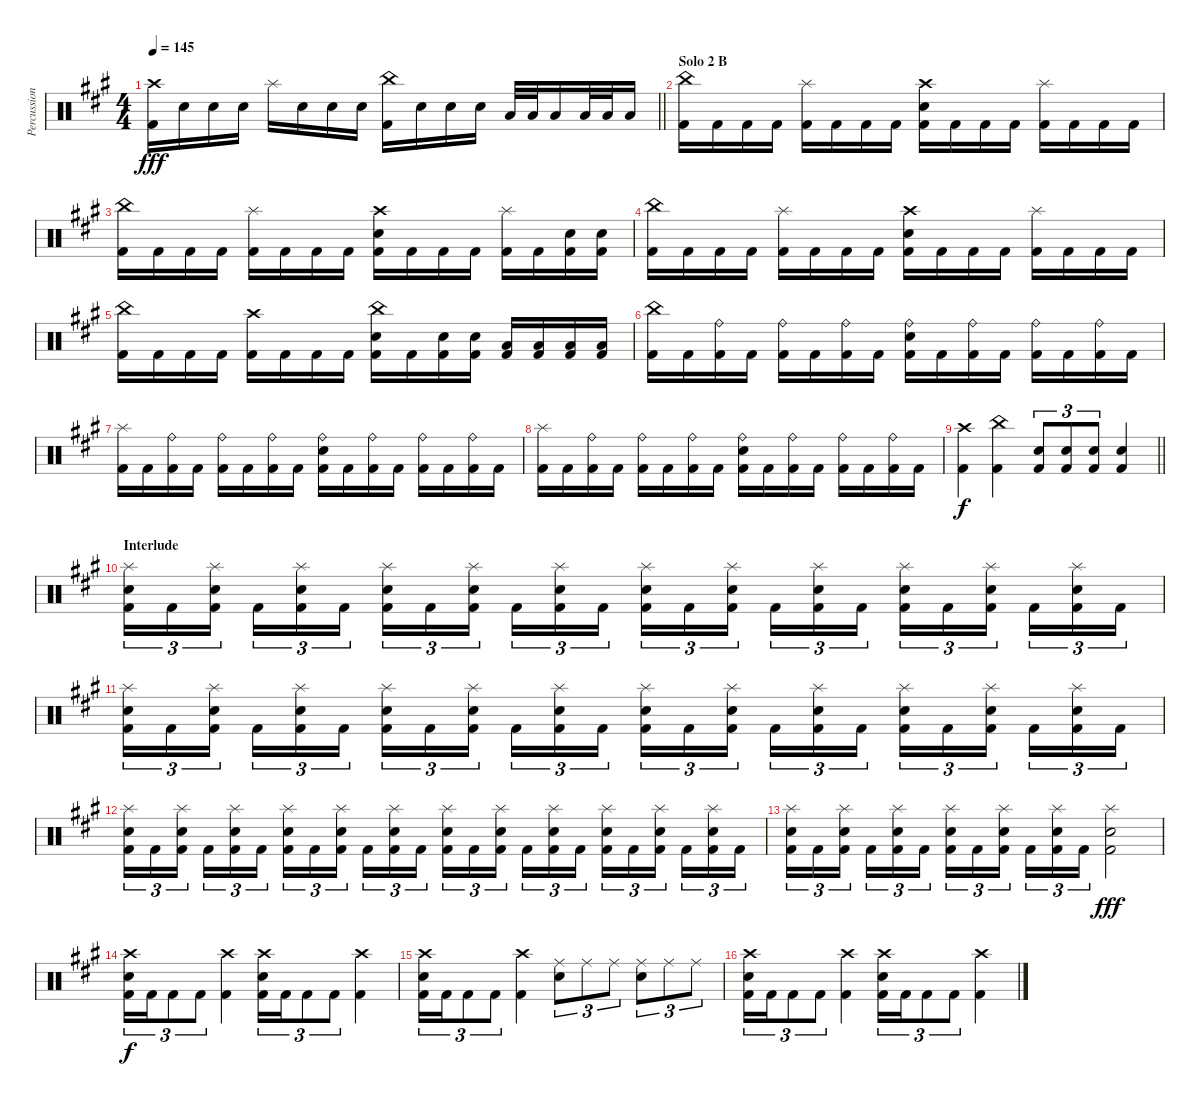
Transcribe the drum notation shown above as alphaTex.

\track ("Percussion" "Percussion") {instrument percussion bank 127}
\staff {score}
\articulation defaults
\ts (4 4)
\tempo 145
\clef neutral
\barLineRight lightlight
\ks a
("Crash high (hit)" "Kick (hit) 2").16{dy fff} "Electric Snare (hit)".16 "Electric Snare (hit)".16 "Electric Snare (hit)".16 "Splash (hit)".16 "Electric Snare (hit)".16 "Electric Snare (hit)".16 "Electric Snare (hit)".16 ("China (hit)" "Kick (hit) 2").16 "Electric Snare (hit)".16 "Electric Snare (hit)".16 "Electric Snare (hit)".16 "Low Tom (hit)".32 "Low Tom (hit)".32 "Low Tom (hit)".16 "Low Floor Tom (hit)".32 "Low Floor Tom (hit)".32 "Low Floor Tom (hit)".16 |
\section ("" "Solo 2 B")
("China (hit)" "Kick (hit) 2").16 "Kick (hit) 2".16 "Kick (hit) 2".16 "Kick (hit) 2".16 ("Splash (hit)" "Kick (hit) 2").16 "Kick (hit) 2".16 "Kick (hit) 2".16 "Kick (hit) 2".16 ("Crash high (hit)" "Electric Snare (hit)" "Kick (hit) 2").16 "Kick (hit) 2".16 "Kick (hit) 2".16 "Kick (hit) 2".16 ("Splash (hit)" "Kick (hit) 2").16 "Kick (hit) 2".16 "Kick (hit) 2".16 "Kick (hit) 2".16 |
("China (hit)" "Kick (hit) 2").16 "Kick (hit) 2".16 "Kick (hit) 2".16 "Kick (hit) 2".16 ("Splash (hit)" "Kick (hit) 2").16 "Kick (hit) 2".16 "Kick (hit) 2".16 "Kick (hit) 2".16 ("Crash high (hit)" "Electric Snare (hit)" "Kick (hit) 2").16 "Kick (hit) 2".16 "Kick (hit) 2".16 "Kick (hit) 2".16 ("Splash (hit)" "Kick (hit) 2").16 "Kick (hit) 2".16 ("Electric Snare (hit)" "Kick (hit) 2").16 ("Electric Snare (hit)" "Kick (hit) 2").16 |
("China (hit)" "Kick (hit) 2").16 "Kick (hit) 2".16 "Kick (hit) 2".16 "Kick (hit) 2".16 ("Splash (hit)" "Kick (hit) 2").16 "Kick (hit) 2".16 "Kick (hit) 2".16 "Kick (hit) 2".16 ("Crash high (hit)" "Electric Snare (hit)" "Kick (hit) 2").16 "Kick (hit) 2".16 "Kick (hit) 2".16 "Kick (hit) 2".16 ("Splash (hit)" "Kick (hit) 2").16 "Kick (hit) 2".16 "Kick (hit) 2".16 "Kick (hit) 2".16 |
("China (hit)" "Kick (hit) 2").16 "Kick (hit) 2".16 "Kick (hit) 2".16 "Kick (hit) 2".16 ("Crash high (hit)" "Kick (hit) 2").16 "Kick (hit) 2".16 "Kick (hit) 2".16 "Kick (hit) 2".16 ("China (hit)" "Electric Snare (hit)" "Kick (hit) 2").16 "Kick (hit) 2".16 ("Electric Snare (hit)" "Kick (hit) 2").16 ("Electric Snare (hit)" "Kick (hit) 2").16 ("Low Tom (hit)" "Kick (hit) 2").16 ("Low Tom (hit)" "Kick (hit) 2").16 ("Low Floor Tom (hit)" "Kick (hit) 2").16 ("Low Floor Tom (hit)" "Kick (hit) 2").16 |
("China (hit)" "Kick (hit) 2").16 "Kick (hit) 2".16 ("Ride (bell)" "Kick (hit) 2").16 "Kick (hit) 2".16 ("Ride (bell)" "Kick (hit) 2").16 "Kick (hit) 2".16 ("Ride (bell)" "Kick (hit) 2").16 "Kick (hit) 2".16 ("Ride (bell)" "Electric Snare (hit)" "Kick (hit) 2").16 "Kick (hit) 2".16 ("Ride (bell)" "Kick (hit) 2").16 "Kick (hit) 2".16 ("Ride (bell)" "Kick (hit) 2").16 "Kick (hit) 2".16 ("Ride (bell)" "Kick (hit) 2").16 "Kick (hit) 2".16 |
("Splash (hit)" "Kick (hit) 2").16 "Kick (hit) 2".16 ("Ride (bell)" "Kick (hit) 2").16 "Kick (hit) 2".16 ("Ride (bell)" "Kick (hit) 2").16 "Kick (hit) 2".16 ("Ride (bell)" "Kick (hit) 2").16 "Kick (hit) 2".16 ("Ride (bell)" "Electric Snare (hit)" "Kick (hit) 2").16 "Kick (hit) 2".16 ("Ride (bell)" "Kick (hit) 2").16 "Kick (hit) 2".16 ("Ride (bell)" "Kick (hit) 2").16 "Kick (hit) 2".16 ("Ride (bell)" "Kick (hit) 2").16 "Kick (hit) 2".16 |
("Splash (hit)" "Kick (hit) 2").16 "Kick (hit) 2".16 ("Ride (bell)" "Kick (hit) 2").16 "Kick (hit) 2".16 ("Ride (bell)" "Kick (hit) 2").16 "Kick (hit) 2".16 ("Ride (bell)" "Kick (hit) 2").16 "Kick (hit) 2".16 ("Ride (bell)" "Electric Snare (hit)" "Kick (hit) 2").16 "Kick (hit) 2".16 ("Ride (bell)" "Kick (hit) 2").16 "Kick (hit) 2".16 ("Ride (bell)" "Kick (hit) 2").16 "Kick (hit) 2".16 ("Ride (bell)" "Kick (hit) 2").16 "Kick (hit) 2".16 |
\barLineRight lightlight
("Crash high (hit)" "Kick (hit) 2").4{dy f} ("China (hit)" "Kick (hit) 2").4 ("Electric Snare (hit)" "Kick (hit) 2").8{tu (3 2)} ("Electric Snare (hit)" "Kick (hit) 2").8{tu (3 2)} ("Electric Snare (hit)" "Kick (hit) 2").8{tu (3 2)} ("Electric Snare (hit)" "Kick (hit) 2").4 |
\section ("" "Interlude")
("Splash (hit)" "Electric Snare (hit)" "Kick (hit) 2").16{tu (3 2)} "Kick (hit) 2".16{tu (3 2)} ("Splash (hit)" "Electric Snare (hit)" "Kick (hit) 2").16{tu (3 2) beam splitsecondary} "Kick (hit) 2".16{tu (3 2)} ("Splash (hit)" "Electric Snare (hit)" "Kick (hit) 2").16{tu (3 2)} "Kick (hit) 2".16{tu (3 2)} ("Splash (hit)" "Electric Snare (hit)" "Kick (hit) 2").16{tu (3 2)} "Kick (hit) 2".16{tu (3 2)} ("Splash (hit)" "Electric Snare (hit)" "Kick (hit) 2").16{tu (3 2) beam splitsecondary} "Kick (hit) 2".16{tu (3 2)} ("Splash (hit)" "Electric Snare (hit)" "Kick (hit) 2").16{tu (3 2)} "Kick (hit) 2".16{tu (3 2)} ("Splash (hit)" "Electric Snare (hit)" "Kick (hit) 2").16{tu (3 2)} "Kick (hit) 2".16{tu (3 2)} ("Splash (hit)" "Electric Snare (hit)" "Kick (hit) 2").16{tu (3 2) beam splitsecondary} "Kick (hit) 2".16{tu (3 2)} ("Splash (hit)" "Electric Snare (hit)" "Kick (hit) 2").16{tu (3 2)} "Kick (hit) 2".16{tu (3 2)} ("Splash (hit)" "Electric Snare (hit)" "Kick (hit) 2").16{tu (3 2)} "Kick (hit) 2".16{tu (3 2)} ("Splash (hit)" "Electric Snare (hit)" "Kick (hit) 2").16{tu (3 2) beam splitsecondary} "Kick (hit) 2".16{tu (3 2)} ("Splash (hit)" "Electric Snare (hit)" "Kick (hit) 2").16{tu (3 2)} "Kick (hit) 2".16{tu (3 2)} |
("Splash (hit)" "Electric Snare (hit)" "Kick (hit) 2").16{tu (3 2)} "Kick (hit) 2".16{tu (3 2)} ("Splash (hit)" "Electric Snare (hit)" "Kick (hit) 2").16{tu (3 2) beam splitsecondary} "Kick (hit) 2".16{tu (3 2)} ("Splash (hit)" "Electric Snare (hit)" "Kick (hit) 2").16{tu (3 2)} "Kick (hit) 2".16{tu (3 2)} ("Splash (hit)" "Electric Snare (hit)" "Kick (hit) 2").16{tu (3 2)} "Kick (hit) 2".16{tu (3 2)} ("Splash (hit)" "Electric Snare (hit)" "Kick (hit) 2").16{tu (3 2) beam splitsecondary} "Kick (hit) 2".16{tu (3 2)} ("Splash (hit)" "Electric Snare (hit)" "Kick (hit) 2").16{tu (3 2)} "Kick (hit) 2".16{tu (3 2)} ("Splash (hit)" "Electric Snare (hit)" "Kick (hit) 2").16{tu (3 2)} "Kick (hit) 2".16{tu (3 2)} ("Splash (hit)" "Electric Snare (hit)" "Kick (hit) 2").16{tu (3 2) beam splitsecondary} "Kick (hit) 2".16{tu (3 2)} ("Splash (hit)" "Electric Snare (hit)" "Kick (hit) 2").16{tu (3 2)} "Kick (hit) 2".16{tu (3 2)} ("Splash (hit)" "Electric Snare (hit)" "Kick (hit) 2").16{tu (3 2)} "Kick (hit) 2".16{tu (3 2)} ("Splash (hit)" "Electric Snare (hit)" "Kick (hit) 2").16{tu (3 2) beam splitsecondary} "Kick (hit) 2".16{tu (3 2)} ("Splash (hit)" "Electric Snare (hit)" "Kick (hit) 2").16{tu (3 2)} "Kick (hit) 2".16{tu (3 2)} |
("Splash (hit)" "Electric Snare (hit)" "Kick (hit) 2").16{tu (3 2)} "Kick (hit) 2".16{tu (3 2)} ("Splash (hit)" "Electric Snare (hit)" "Kick (hit) 2").16{tu (3 2) beam splitsecondary} "Kick (hit) 2".16{tu (3 2)} ("Splash (hit)" "Electric Snare (hit)" "Kick (hit) 2").16{tu (3 2)} "Kick (hit) 2".16{tu (3 2)} ("Splash (hit)" "Electric Snare (hit)" "Kick (hit) 2").16{tu (3 2)} "Kick (hit) 2".16{tu (3 2)} ("Splash (hit)" "Electric Snare (hit)" "Kick (hit) 2").16{tu (3 2) beam splitsecondary} "Kick (hit) 2".16{tu (3 2)} ("Splash (hit)" "Electric Snare (hit)" "Kick (hit) 2").16{tu (3 2)} "Kick (hit) 2".16{tu (3 2)} ("Splash (hit)" "Electric Snare (hit)" "Kick (hit) 2").16{tu (3 2)} "Kick (hit) 2".16{tu (3 2)} ("Splash (hit)" "Electric Snare (hit)" "Kick (hit) 2").16{tu (3 2) beam splitsecondary} "Kick (hit) 2".16{tu (3 2)} ("Splash (hit)" "Electric Snare (hit)" "Kick (hit) 2").16{tu (3 2)} "Kick (hit) 2".16{tu (3 2)} ("Splash (hit)" "Electric Snare (hit)" "Kick (hit) 2").16{tu (3 2)} "Kick (hit) 2".16{tu (3 2)} ("Splash (hit)" "Electric Snare (hit)" "Kick (hit) 2").16{tu (3 2) beam splitsecondary} "Kick (hit) 2".16{tu (3 2)} ("Splash (hit)" "Electric Snare (hit)" "Kick (hit) 2").16{tu (3 2)} "Kick (hit) 2".16{tu (3 2)} |
("Splash (hit)" "Electric Snare (hit)" "Kick (hit) 2").16{tu (3 2)} "Kick (hit) 2".16{tu (3 2)} ("Splash (hit)" "Electric Snare (hit)" "Kick (hit) 2").16{tu (3 2) beam splitsecondary} "Kick (hit) 2".16{tu (3 2)} ("Splash (hit)" "Electric Snare (hit)" "Kick (hit) 2").16{tu (3 2)} "Kick (hit) 2".16{tu (3 2)} ("Splash (hit)" "Electric Snare (hit)" "Kick (hit) 2").16{tu (3 2)} "Kick (hit) 2".16{tu (3 2)} ("Splash (hit)" "Electric Snare (hit)" "Kick (hit) 2").16{tu (3 2) beam splitsecondary} "Kick (hit) 2".16{tu (3 2)} ("Splash (hit)" "Electric Snare (hit)" "Kick (hit) 2").16{tu (3 2)} "Kick (hit) 2".16{tu (3 2)} ("Splash (hit)" "Electric Snare (hit)" "Kick (hit) 2").2{dy fff} |
("Crash high (hit)" "Electric Snare (hit)" "Kick (hit) 2").16{tu (3 2) dy f} "Kick (hit) 2".16{tu (3 2)} "Kick (hit) 2".8{tu (3 2)} "Kick (hit) 2".8{tu (3 2)} ("Crash high (hit)" "Kick (hit) 2").4 ("Crash high (hit)" "Electric Snare (hit)" "Kick (hit) 2").16{tu (3 2)} "Kick (hit) 2".16{tu (3 2)} "Kick (hit) 2".8{tu (3 2)} "Kick (hit) 2".8{tu (3 2)} ("Crash high (hit)" "Kick (hit) 2").4 |
("Crash high (hit)" "Electric Snare (hit)" "Kick (hit) 2").16{tu (3 2)} "Kick (hit) 2".16{tu (3 2)} "Kick (hit) 2".8{tu (3 2)} "Kick (hit) 2".8{tu (3 2)} ("Crash high (hit)" "Kick (hit) 2").4 ("Ride (middle)" "Electric Snare (hit)").8{tu (3 2)} "Ride (middle)".8{tu (3 2)} "Ride (middle)".8{tu (3 2)} ("Ride (middle)" "Electric Snare (hit)").8{tu (3 2)} "Ride (middle)".8{tu (3 2)} "Ride (middle)".8{tu (3 2)} |
("Crash high (hit)" "Electric Snare (hit)" "Kick (hit) 2").16{tu (3 2)} "Kick (hit) 2".16{tu (3 2)} "Kick (hit) 2".8{tu (3 2)} "Kick (hit) 2".8{tu (3 2)} ("Crash high (hit)" "Kick (hit) 2").4 ("Crash high (hit)" "Electric Snare (hit)" "Kick (hit) 2").16{tu (3 2)} "Kick (hit) 2".16{tu (3 2)} "Kick (hit) 2".8{tu (3 2)} "Kick (hit) 2".8{tu (3 2)} ("Crash high (hit)" "Kick (hit) 2").4
